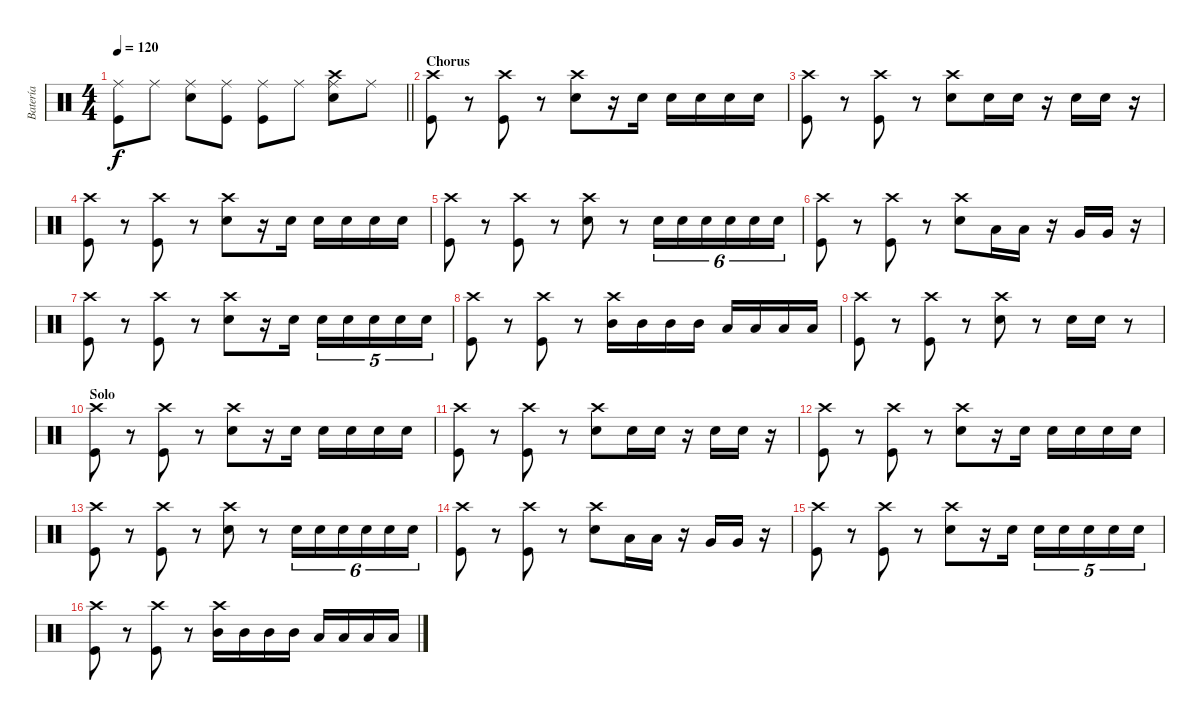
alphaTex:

\track ("Batería" "Batería") {instrument percussion}
\staff {score}
\articulation defaults
\ts (4 4)
\tempo 120
\clef neutral
\barLineRight lightlight
\ks c
("Ride (middle)" "Kick (hit)").8{dy f} "Ride (middle)".8 ("Ride (middle)" "Electric Snare (hit)").8 ("Ride (middle)" "Kick (hit)").8 ("Ride (middle)" "Kick (hit)").8 "Ride (middle)".8 ("Ride (middle)" "Electric Snare (hit)" "Crash high (hit)").8 "Ride (middle)".8 |
\section ("" "Chorus")
("Crash high (hit)" "Kick (hit)").8 r.8 ("Crash high (hit)" "Kick (hit)").8 r.8 ("Crash high (hit)" "Electric Snare (hit)").8 r.16 "Electric Snare (hit)".16 "Electric Snare (hit)".16 "Electric Snare (hit)".16 "Electric Snare (hit)".16 "Electric Snare (hit)".16 |
("Crash high (hit)" "Kick (hit)").8 r.8 ("Crash high (hit)" "Kick (hit)").8 r.8 ("Crash high (hit)" "Electric Snare (hit)").8 "Electric Snare (hit)".16 "Electric Snare (hit)".16 r.16 "Electric Snare (hit)".16 "Electric Snare (hit)".16 r.16 |
("Crash high (hit)" "Kick (hit)").8 r.8 ("Crash high (hit)" "Kick (hit)").8 r.8 ("Crash high (hit)" "Electric Snare (hit)").8 r.16 "Electric Snare (hit)".16 "Electric Snare (hit)".16 "Electric Snare (hit)".16 "Electric Snare (hit)".16 "Electric Snare (hit)".16 |
("Crash high (hit)" "Kick (hit)").8 r.8 ("Crash high (hit)" "Kick (hit)").8 r.8 ("Crash high (hit)" "Electric Snare (hit)").8 r.8 "Electric Snare (hit)".16{tu (6 4)} "Electric Snare (hit)".16{tu (6 4)} "Electric Snare (hit)".16{tu (6 4)} "Electric Snare (hit)".16{tu (6 4)} "Electric Snare (hit)".16{tu (6 4)} "Electric Snare (hit)".16{tu (6 4)} |
("Crash high (hit)" "Kick (hit)").8 r.8 ("Crash high (hit)" "Kick (hit)").8 r.8 ("Crash high (hit)" "Snare (hit) 2").8 "Low Tom (hit)".16 "Low Tom (hit)".16 r.16 "Very Low Tom (hit)".16 "Very Low Tom (hit)".16 r.16 |
("Crash high (hit)" "Kick (hit)").8 r.8 ("Crash high (hit)" "Kick (hit)").8 r.8 ("Crash high (hit)" "Electric Snare (hit)").8 r.16 "Electric Snare (hit)".16 "Electric Snare (hit)".16{tu (5 4)} "Electric Snare (hit)".16{tu (5 4)} "Electric Snare (hit)".16{tu (5 4)} "Electric Snare (hit)".16{tu (5 4)} "Electric Snare (hit)".16{tu (5 4)} |
("Crash high (hit)" "Kick (hit)").8 r.8 ("Crash high (hit)" "Kick (hit)").8 r.8 ("Crash high (hit)" "Mid Tom (hit)").16 "Mid Tom (hit)".16 "Mid Tom (hit)".16 "Mid Tom (hit)".16 "Low Tom (hit)".16 "Low Tom (hit)".16 "Low Tom (hit)".16 "Low Tom (hit)".16 |
("Crash high (hit)" "Kick (hit)").8 r.8 ("Crash high (hit)" "Kick (hit)").8 r.8 ("Crash high (hit)" "Electric Snare (hit)").8 r.8 "Electric Snare (hit)".16 "Electric Snare (hit)".16 r.8 |
\section ("" "Solo")
("Crash high (hit)" "Kick (hit)").8 r.8 ("Crash high (hit)" "Kick (hit)").8 r.8 ("Crash high (hit)" "Electric Snare (hit)").8 r.16 "Electric Snare (hit)".16 "Electric Snare (hit)".16 "Electric Snare (hit)".16 "Electric Snare (hit)".16 "Electric Snare (hit)".16 |
("Crash high (hit)" "Kick (hit)").8 r.8 ("Crash high (hit)" "Kick (hit)").8 r.8 ("Crash high (hit)" "Electric Snare (hit)").8 "Electric Snare (hit)".16 "Electric Snare (hit)".16 r.16 "Electric Snare (hit)".16 "Electric Snare (hit)".16 r.16 |
("Crash high (hit)" "Kick (hit)").8 r.8 ("Crash high (hit)" "Kick (hit)").8 r.8 ("Crash high (hit)" "Electric Snare (hit)").8 r.16 "Electric Snare (hit)".16 "Electric Snare (hit)".16 "Electric Snare (hit)".16 "Electric Snare (hit)".16 "Electric Snare (hit)".16 |
("Crash high (hit)" "Kick (hit)").8 r.8 ("Crash high (hit)" "Kick (hit)").8 r.8 ("Crash high (hit)" "Electric Snare (hit)").8 r.8 "Electric Snare (hit)".16{tu (6 4)} "Electric Snare (hit)".16{tu (6 4)} "Electric Snare (hit)".16{tu (6 4)} "Electric Snare (hit)".16{tu (6 4)} "Electric Snare (hit)".16{tu (6 4)} "Electric Snare (hit)".16{tu (6 4)} |
("Crash high (hit)" "Kick (hit)").8 r.8 ("Crash high (hit)" "Kick (hit)").8 r.8 ("Crash high (hit)" "Snare (hit) 2").8 "Low Tom (hit)".16 "Low Tom (hit)".16 r.16 "Very Low Tom (hit)".16 "Very Low Tom (hit)".16 r.16 |
("Crash high (hit)" "Kick (hit)").8 r.8 ("Crash high (hit)" "Kick (hit)").8 r.8 ("Crash high (hit)" "Electric Snare (hit)").8 r.16 "Electric Snare (hit)".16 "Electric Snare (hit)".16{tu (5 4)} "Electric Snare (hit)".16{tu (5 4)} "Electric Snare (hit)".16{tu (5 4)} "Electric Snare (hit)".16{tu (5 4)} "Electric Snare (hit)".16{tu (5 4)} |
("Crash high (hit)" "Kick (hit)").8 r.8 ("Crash high (hit)" "Kick (hit)").8 r.8 ("Crash high (hit)" "Mid Tom (hit)").16 "Mid Tom (hit)".16 "Mid Tom (hit)".16 "Mid Tom (hit)".16 "Low Tom (hit)".16 "Low Tom (hit)".16 "Low Tom (hit)".16 "Low Tom (hit)".16
